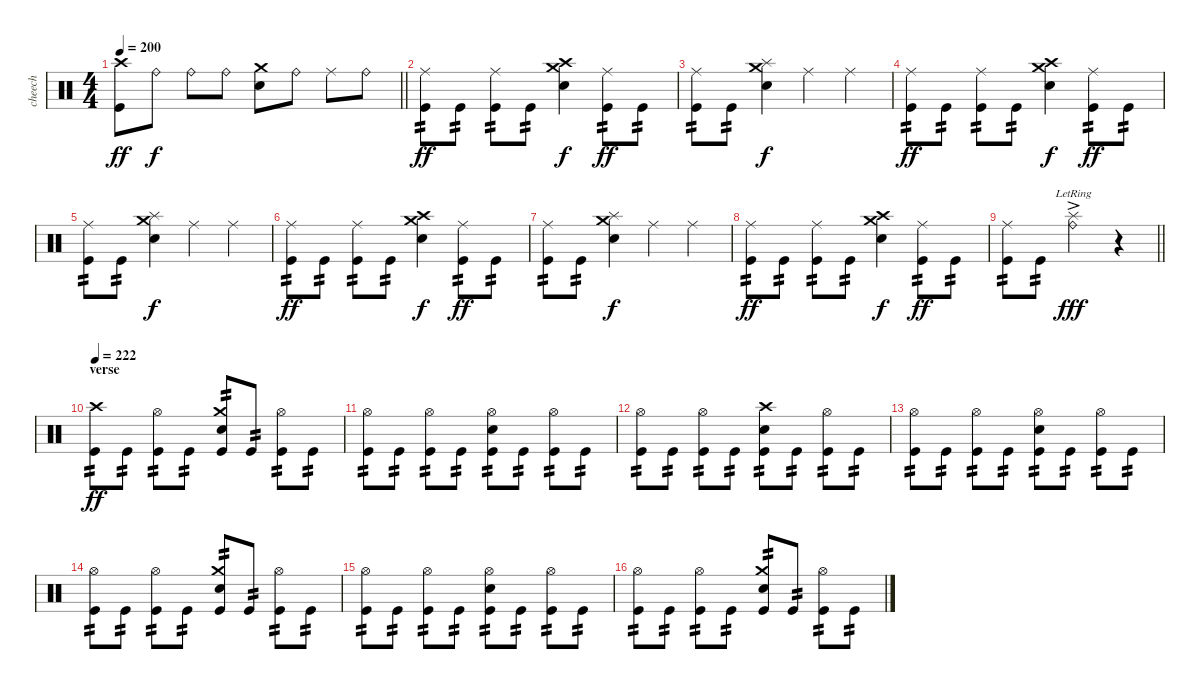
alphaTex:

\track ("cheech" "cheech") {instrument percussion}
\staff {score}
\articulation defaults
\ts (4 4)
\tempo 200
\clef neutral
\barLineRight lightlight
\ks c
("Crash high (hit)" "Kick (hit)").8{dy ff} "Ride (bell)".8{dy f} "Ride (bell)".8 "Ride (bell)".8 ("Crash medium (hit)" "Electric Snare (hit)").8 "Ride (bell)".8 "Ride (middle)".8 "Ride (bell)".8 |
("Ride (middle)" "Kick (hit)").8{tp 2 dy ff} "Kick (hit)".8{tp 2} ("Ride (middle)" "Kick (hit)").8{tp 2} "Kick (hit)".8{tp 2} ("Crash medium (hit)" "Crash high (hit)" "Electric Snare (hit)").4{dy f} ("Ride (middle)" "Kick (hit)").8{tp 2 dy ff} "Kick (hit)".8{tp 2} |
("Ride (middle)" "Kick (hit)").8{tp 2} "Kick (hit)".8{tp 2} ("Crash medium (hit)" "Splash (hit)" "Electric Snare (hit)").4{dy f} "Ride (middle)".4 "Ride (middle)".4 |
("Ride (middle)" "Kick (hit)").8{tp 2 dy ff} "Kick (hit)".8{tp 2} ("Ride (middle)" "Kick (hit)").8{tp 2} "Kick (hit)".8{tp 2} ("Crash medium (hit)" "Crash high (hit)" "Electric Snare (hit)").4{dy f} ("Ride (middle)" "Kick (hit)").8{tp 2 dy ff} "Kick (hit)".8{tp 2} |
("Ride (middle)" "Kick (hit)").8{tp 2} "Kick (hit)".8{tp 2} ("Crash medium (hit)" "Splash (hit)" "Electric Snare (hit)").4{dy f} "Ride (middle)".4 "Ride (middle)".4 |
("Ride (middle)" "Kick (hit)").8{tp 2 dy ff} "Kick (hit)".8{tp 2} ("Ride (middle)" "Kick (hit)").8{tp 2} "Kick (hit)".8{tp 2} ("Crash medium (hit)" "Crash high (hit)" "Electric Snare (hit)").4{dy f} ("Ride (middle)" "Kick (hit)").8{tp 2 dy ff} "Kick (hit)".8{tp 2} |
("Ride (middle)" "Kick (hit)").8{tp 2} "Kick (hit)".8{tp 2} ("Crash medium (hit)" "Splash (hit)" "Electric Snare (hit)").4{dy f} "Ride (middle)".4 "Ride (middle)".4 |
("Ride (middle)" "Kick (hit)").8{tp 2 dy ff} "Kick (hit)".8{tp 2} ("Ride (middle)" "Kick (hit)").8{tp 2} "Kick (hit)".8{tp 2} ("Crash medium (hit)" "Crash high (hit)" "Electric Snare (hit)").4{dy f} ("Ride (middle)" "Kick (hit)").8{tp 2 dy ff} "Kick (hit)".8{tp 2} |
\barLineRight lightlight
("Ride (middle)" "Kick (hit)").8{tp 2} "Kick (hit)".8{tp 2} ("Ride (bell)"{ac lr} "Splash (hit)").2{dy fff} r.4 |
\section ("" "verse")
\tempo 222
("Crash high (hit)" "Kick (hit)").8{tp 2 dy ff} "Kick (hit)".8{tp 2} ("Hi-Hat (open)" "Kick (hit)").8{tp 2} "Kick (hit)".8{tp 2} ("Crash medium (hit)" "Electric Snare (hit)" "Kick (hit)").8{tp 2} "Kick (hit)".8{tp 2} ("Hi-Hat (open)" "Kick (hit)").8{tp 2} "Kick (hit)".8{tp 2} |
("Hi-Hat (open)" "Kick (hit)").8{tp 2} "Kick (hit)".8{tp 2} ("Hi-Hat (open)" "Kick (hit)").8{tp 2} "Kick (hit)".8{tp 2} ("Hi-Hat (open)" "Electric Snare (hit)" "Kick (hit)").8{tp 2} "Kick (hit)".8{tp 2} ("Hi-Hat (open)" "Kick (hit)").8{tp 2} "Kick (hit)".8{tp 2} |
("Hi-Hat (open)" "Kick (hit)").8{tp 2} "Kick (hit)".8{tp 2} ("Hi-Hat (open)" "Kick (hit)").8{tp 2} "Kick (hit)".8{tp 2} ("Crash high (hit)" "Electric Snare (hit)" "Kick (hit)").8{tp 2} "Kick (hit)".8{tp 2} ("Hi-Hat (open)" "Kick (hit)").8{tp 2} "Kick (hit)".8{tp 2} |
("Hi-Hat (open)" "Kick (hit)").8{tp 2} "Kick (hit)".8{tp 2} ("Hi-Hat (open)" "Kick (hit)").8{tp 2} "Kick (hit)".8{tp 2} ("Hi-Hat (open)" "Electric Snare (hit)" "Kick (hit)").8{tp 2} "Kick (hit)".8{tp 2} ("Hi-Hat (open)" "Kick (hit)").8{tp 2} "Kick (hit)".8{tp 2} |
("Hi-Hat (open)" "Kick (hit)").8{tp 2} "Kick (hit)".8{tp 2} ("Hi-Hat (open)" "Kick (hit)").8{tp 2} "Kick (hit)".8{tp 2} ("Crash medium (hit)" "Electric Snare (hit)" "Kick (hit)").8{tp 2} "Kick (hit)".8{tp 2} ("Hi-Hat (open)" "Kick (hit)").8{tp 2} "Kick (hit)".8{tp 2} |
("Hi-Hat (open)" "Kick (hit)").8{tp 2} "Kick (hit)".8{tp 2} ("Hi-Hat (open)" "Kick (hit)").8{tp 2} "Kick (hit)".8{tp 2} ("Hi-Hat (open)" "Electric Snare (hit)" "Kick (hit)").8{tp 2} "Kick (hit)".8{tp 2} ("Hi-Hat (open)" "Kick (hit)").8{tp 2} "Kick (hit)".8{tp 2} |
("Hi-Hat (open)" "Kick (hit)").8{tp 2} "Kick (hit)".8{tp 2} ("Hi-Hat (open)" "Kick (hit)").8{tp 2} "Kick (hit)".8{tp 2} ("Crash medium (hit)" "Electric Snare (hit)" "Kick (hit)").8{tp 2} "Kick (hit)".8{tp 2} ("Hi-Hat (open)" "Kick (hit)").8{tp 2} "Kick (hit)".8{tp 2}
